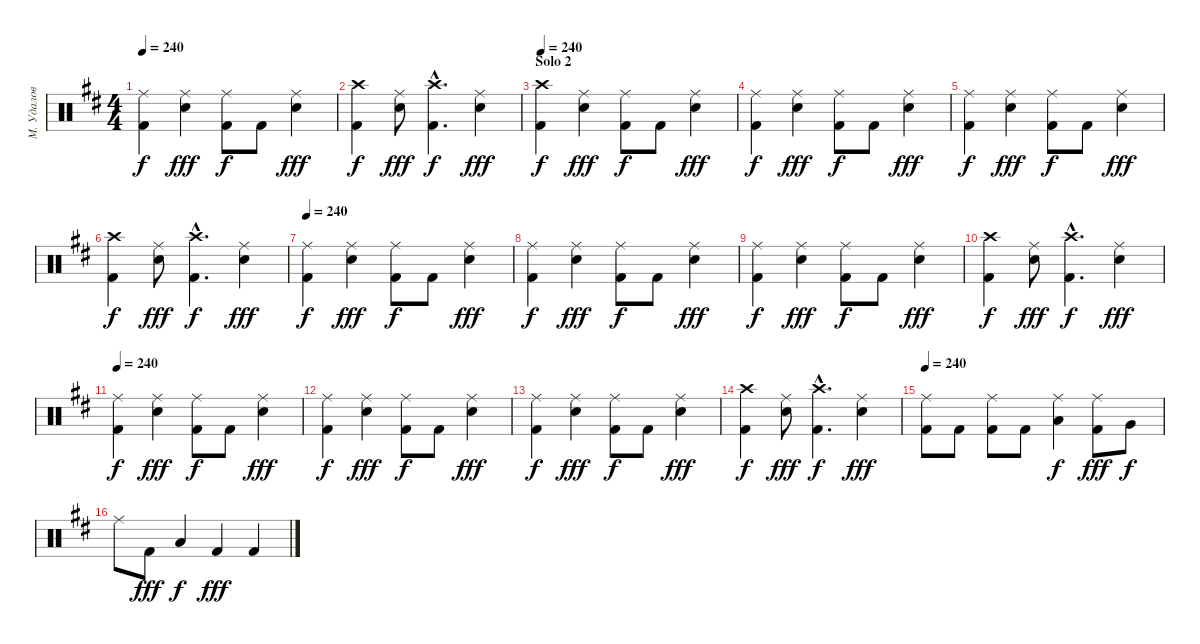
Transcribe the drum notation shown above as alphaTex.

\track ("М. Удалов" "М. Удалов") {instrument percussion}
\staff {score}
\articulation defaults
\ts (4 4)
\tempo 240
\clef neutral
\ks d
("Ride (middle)" "Kick (hit) 2").4{dy f} ("Ride (middle)" "Electric Snare (hit)").4{dy fff} ("Ride (middle)" "Kick (hit) 2").8{dy f} "Kick (hit) 2".8 ("Ride (middle)" "Electric Snare (hit)").4{dy fff} |
("Crash high (hit)" "Kick (hit) 2").4{dy f} ("Ride (middle)" "Electric Snare (hit)").8{dy fff} ("Crash high (hit)"{hac} "Kick (hit) 2"{hac}).4{d dy f} ("Ride (middle)" "Electric Snare (hit)").4{dy fff} |
\section ("" "Solo 2")
\tempo 240
("Crash high (hit)" "Kick (hit) 2").4{dy f} ("Ride (middle)" "Electric Snare (hit)").4{dy fff} ("Ride (middle)" "Kick (hit) 2").8{dy f} "Kick (hit) 2".8 ("Ride (middle)" "Electric Snare (hit)").4{dy fff} |
("Ride (middle)" "Kick (hit) 2").4{dy f} ("Ride (middle)" "Electric Snare (hit)").4{dy fff} ("Ride (middle)" "Kick (hit) 2").8{dy f} "Kick (hit) 2".8 ("Ride (middle)" "Electric Snare (hit)").4{dy fff} |
("Ride (middle)" "Kick (hit) 2").4{dy f} ("Ride (middle)" "Electric Snare (hit)").4{dy fff} ("Ride (middle)" "Kick (hit) 2").8{dy f} "Kick (hit) 2".8 ("Ride (middle)" "Electric Snare (hit)").4{dy fff} |
("Crash high (hit)" "Kick (hit) 2").4{dy f} ("Ride (middle)" "Electric Snare (hit)").8{dy fff} ("Crash high (hit)"{hac} "Kick (hit) 2"{hac}).4{d dy f} ("Ride (middle)" "Electric Snare (hit)").4{dy fff} |
\tempo 240
("Ride (middle)" "Kick (hit) 2").4{dy f} ("Ride (middle)" "Electric Snare (hit)").4{dy fff} ("Ride (middle)" "Kick (hit) 2").8{dy f} "Kick (hit) 2".8 ("Ride (middle)" "Electric Snare (hit)").4{dy fff} |
("Ride (middle)" "Kick (hit) 2").4{dy f} ("Ride (middle)" "Electric Snare (hit)").4{dy fff} ("Ride (middle)" "Kick (hit) 2").8{dy f} "Kick (hit) 2".8 ("Ride (middle)" "Electric Snare (hit)").4{dy fff} |
("Ride (middle)" "Kick (hit) 2").4{dy f} ("Ride (middle)" "Electric Snare (hit)").4{dy fff} ("Ride (middle)" "Kick (hit) 2").8{dy f} "Kick (hit) 2".8 ("Ride (middle)" "Electric Snare (hit)").4{dy fff} |
("Crash high (hit)" "Kick (hit) 2").4{dy f} ("Ride (middle)" "Electric Snare (hit)").8{dy fff} ("Crash high (hit)"{hac} "Kick (hit) 2"{hac}).4{d dy f} ("Ride (middle)" "Electric Snare (hit)").4{dy fff} |
\tempo 240
("Ride (middle)" "Kick (hit) 2").4{dy f} ("Ride (middle)" "Electric Snare (hit)").4{dy fff} ("Ride (middle)" "Kick (hit) 2").8{dy f} "Kick (hit) 2".8 ("Ride (middle)" "Electric Snare (hit)").4{dy fff} |
("Ride (middle)" "Kick (hit) 2").4{dy f} ("Ride (middle)" "Electric Snare (hit)").4{dy fff} ("Ride (middle)" "Kick (hit) 2").8{dy f} "Kick (hit) 2".8 ("Ride (middle)" "Electric Snare (hit)").4{dy fff} |
("Ride (middle)" "Kick (hit) 2").4{dy f} ("Ride (middle)" "Electric Snare (hit)").4{dy fff} ("Ride (middle)" "Kick (hit) 2").8{dy f} "Kick (hit) 2".8 ("Ride (middle)" "Electric Snare (hit)").4{dy fff} |
("Crash high (hit)" "Kick (hit) 2").4{dy f} ("Ride (middle)" "Electric Snare (hit)").8{dy fff} ("Crash high (hit)"{hac} "Kick (hit) 2"{hac}).4{d dy f} ("Ride (middle)" "Electric Snare (hit)").4{dy fff} |
\tempo 240
("Ride (middle)" "Kick (hit) 2").8 "Kick (hit) 2".8 ("Ride (middle)" "Kick (hit) 2").8 "Kick (hit) 2".8 ("Ride (middle)" "Low Tom (hit)").4{dy f} ("Ride (middle)" "Kick (hit) 2").8{dy fff} "Very Low Tom (hit)".8{dy f} |
"Ride (middle)".8 "Kick (hit) 2".8{dy fff} "Low Floor Tom (hit)".4{dy f} "Kick (hit) 2".4{dy fff} "Kick (hit) 2".4
